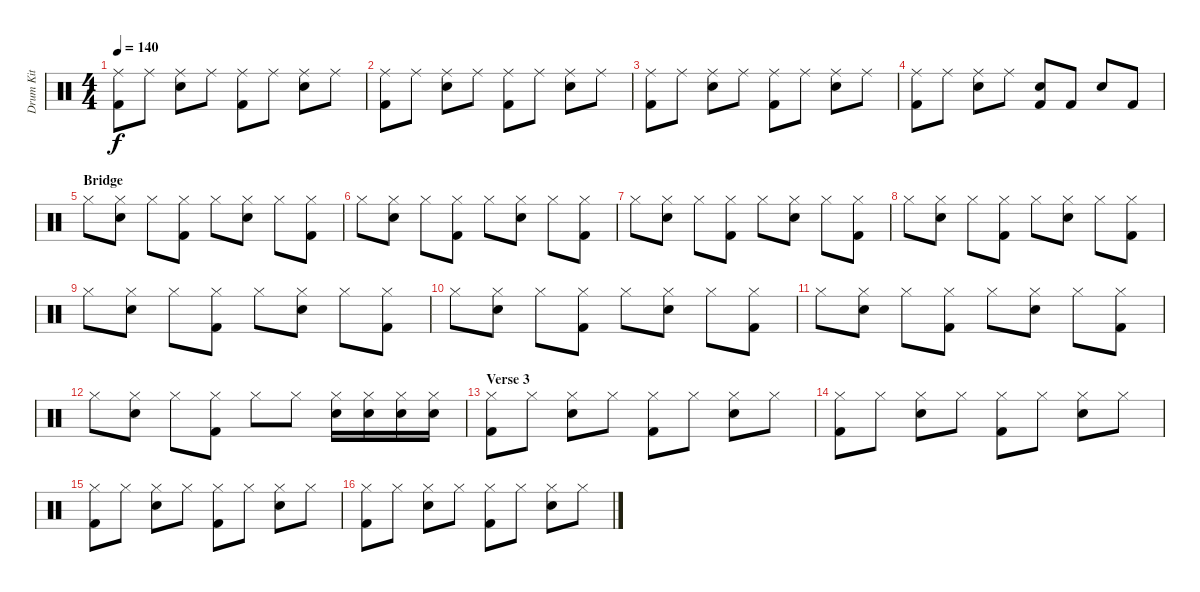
\track ("Drum Kit" "Drum Kit") {instrument percussion}
\staff {score}
\articulation defaults
\ts (4 4)
\tempo 140
\clef neutral
\ks c
("Ride (middle)" "Kick (hit) 2").8{dy f} "Ride (middle)".8 ("Ride (middle)" "Snare (hit) 2").8 "Ride (middle)".8 ("Ride (middle)" "Kick (hit) 2").8 "Ride (middle)".8 ("Ride (middle)" "Snare (hit) 2").8 "Ride (middle)".8 |
("Ride (middle)" "Kick (hit) 2").8 "Ride (middle)".8 ("Ride (middle)" "Snare (hit) 2").8 "Ride (middle)".8 ("Ride (middle)" "Kick (hit) 2").8 "Ride (middle)".8 ("Ride (middle)" "Snare (hit) 2").8 "Ride (middle)".8 |
("Ride (middle)" "Kick (hit) 2").8 "Ride (middle)".8 ("Ride (middle)" "Snare (hit) 2").8 "Ride (middle)".8 ("Ride (middle)" "Kick (hit) 2").8 "Ride (middle)".8 ("Ride (middle)" "Snare (hit) 2").8 "Ride (middle)".8 |
("Ride (middle)" "Kick (hit) 2").8 "Ride (middle)".8 ("Ride (middle)" "Snare (hit) 2").8 "Ride (middle)".8 ("Snare (hit) 2" "Kick (hit) 2").8 "Kick (hit) 2".8 "Snare (hit) 2".8 "Kick (hit) 2".8 |
\section ("" "Bridge")
"Hi-Hat (closed)".8 ("Hi-Hat (closed)" "Snare (hit) 2").8 "Hi-Hat (closed)".8 ("Hi-Hat (closed)" "Kick (hit) 2").8 "Hi-Hat (closed)".8 ("Hi-Hat (closed)" "Snare (hit) 2").8 "Hi-Hat (closed)".8 ("Hi-Hat (closed)" "Kick (hit) 2").8 |
"Hi-Hat (closed)".8 ("Hi-Hat (closed)" "Snare (hit) 2").8 "Hi-Hat (closed)".8 ("Hi-Hat (closed)" "Kick (hit) 2").8 "Hi-Hat (closed)".8 ("Hi-Hat (closed)" "Snare (hit) 2").8 "Hi-Hat (closed)".8 ("Hi-Hat (closed)" "Kick (hit) 2").8 |
"Hi-Hat (closed)".8 ("Hi-Hat (closed)" "Snare (hit) 2").8 "Hi-Hat (closed)".8 ("Hi-Hat (closed)" "Kick (hit) 2").8 "Hi-Hat (closed)".8 ("Hi-Hat (closed)" "Snare (hit) 2").8 "Hi-Hat (closed)".8 ("Hi-Hat (closed)" "Kick (hit) 2").8 |
"Hi-Hat (closed)".8 ("Hi-Hat (closed)" "Snare (hit) 2").8 "Hi-Hat (closed)".8 ("Hi-Hat (closed)" "Kick (hit) 2").8 "Hi-Hat (closed)".8 ("Hi-Hat (closed)" "Snare (hit) 2").8 "Hi-Hat (closed)".8 ("Hi-Hat (closed)" "Kick (hit) 2").8 |
"Hi-Hat (closed)".8 ("Hi-Hat (closed)" "Snare (hit) 2").8 "Hi-Hat (closed)".8 ("Hi-Hat (closed)" "Kick (hit) 2").8 "Hi-Hat (closed)".8 ("Hi-Hat (closed)" "Snare (hit) 2").8 "Hi-Hat (closed)".8 ("Hi-Hat (closed)" "Kick (hit) 2").8 |
"Hi-Hat (closed)".8 ("Hi-Hat (closed)" "Snare (hit) 2").8 "Hi-Hat (closed)".8 ("Hi-Hat (closed)" "Kick (hit) 2").8 "Hi-Hat (closed)".8 ("Hi-Hat (closed)" "Snare (hit) 2").8 "Hi-Hat (closed)".8 ("Hi-Hat (closed)" "Kick (hit) 2").8 |
"Hi-Hat (closed)".8 ("Hi-Hat (closed)" "Snare (hit) 2").8 "Hi-Hat (closed)".8 ("Hi-Hat (closed)" "Kick (hit) 2").8 "Hi-Hat (closed)".8 ("Hi-Hat (closed)" "Snare (hit) 2").8 "Hi-Hat (closed)".8 ("Hi-Hat (closed)" "Kick (hit) 2").8 |
"Hi-Hat (closed)".8 ("Hi-Hat (closed)" "Snare (hit) 2").8 "Hi-Hat (closed)".8 ("Hi-Hat (closed)" "Kick (hit) 2").8 "Hi-Hat (closed)".8 "Hi-Hat (closed)".8 ("Hi-Hat (closed)" "Snare (hit) 2").16 ("Hi-Hat (closed)" "Snare (hit) 2").16 ("Hi-Hat (closed)" "Snare (hit) 2").16 ("Hi-Hat (closed)" "Snare (hit) 2").16 |
\section ("" "Verse 3")
("Hi-Hat (closed)" "Kick (hit) 2").8 "Hi-Hat (closed)".8 ("Hi-Hat (closed)" "Snare (hit) 2").8 "Hi-Hat (closed)".8 ("Hi-Hat (closed)" "Kick (hit) 2").8 "Hi-Hat (closed)".8 ("Hi-Hat (closed)" "Snare (hit) 2").8 "Hi-Hat (closed)".8 |
("Hi-Hat (closed)" "Kick (hit) 2").8 "Hi-Hat (closed)".8 ("Hi-Hat (closed)" "Snare (hit) 2").8 "Hi-Hat (closed)".8 ("Hi-Hat (closed)" "Kick (hit) 2").8 "Hi-Hat (closed)".8 ("Hi-Hat (closed)" "Snare (hit) 2").8 "Hi-Hat (closed)".8 |
("Hi-Hat (closed)" "Kick (hit) 2").8 "Hi-Hat (closed)".8 ("Hi-Hat (closed)" "Snare (hit) 2").8 "Hi-Hat (closed)".8 ("Hi-Hat (closed)" "Kick (hit) 2").8 "Hi-Hat (closed)".8 ("Hi-Hat (closed)" "Snare (hit) 2").8 "Hi-Hat (closed)".8 |
("Hi-Hat (closed)" "Kick (hit) 2").8 "Hi-Hat (closed)".8 ("Hi-Hat (closed)" "Snare (hit) 2").8 "Hi-Hat (closed)".8 ("Hi-Hat (closed)" "Kick (hit) 2").8 "Hi-Hat (closed)".8 ("Hi-Hat (closed)" "Snare (hit) 2").8 "Hi-Hat (closed)".8
